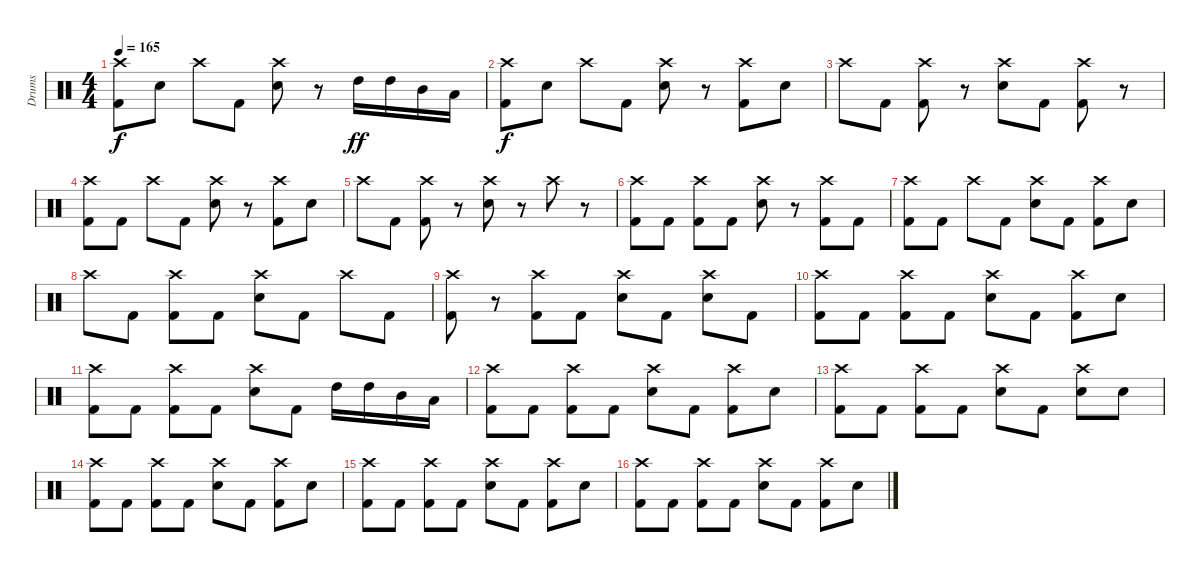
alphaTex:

\track ("Drums" "Drums") {instrument percussion}
\staff {score}
\articulation defaults
\ts (4 4)
\tempo 165
\clef neutral
\ks c
("Crash high (hit)" "Kick (hit) 2").8{dy f} "Electric Snare (hit)".8 "Crash high (hit)".8 "Kick (hit) 2".8 ("Crash high (hit)" "Electric Snare (hit)").8 r.8 "High Tom (hit)".16{dy ff} "High Tom (hit)".16 "Mid Tom (hit)".16 "Low Tom (hit)".16 |
("Crash high (hit)" "Kick (hit) 2").8{dy f} "Electric Snare (hit)".8 "Crash high (hit)".8 "Kick (hit) 2".8 ("Crash high (hit)" "Electric Snare (hit)").8 r.8 ("Crash high (hit)" "Kick (hit) 2").8 "Electric Snare (hit)".8 |
"Crash high (hit)".8 "Kick (hit) 2".8 ("Crash high (hit)" "Kick (hit) 2").8 r.8 ("Crash high (hit)" "Electric Snare (hit)").8 "Kick (hit) 2".8 ("Crash high (hit)" "Kick (hit) 2").8 r.8 |
("Crash high (hit)" "Kick (hit) 2").8 "Kick (hit) 2".8 "Crash high (hit)".8 "Kick (hit) 2".8 ("Crash high (hit)" "Electric Snare (hit)").8 r.8 ("Crash high (hit)" "Kick (hit) 2").8 "Electric Snare (hit)".8 |
"Crash high (hit)".8 "Kick (hit) 2".8 ("Crash high (hit)" "Kick (hit) 2").8 r.8 ("Crash high (hit)" "Electric Snare (hit)").8 r.8 "Crash high (hit)".8 r.8 |
("Crash high (hit)" "Kick (hit) 2").8 "Kick (hit) 2".8 ("Crash high (hit)" "Kick (hit) 2").8 "Kick (hit) 2".8 ("Crash high (hit)" "Electric Snare (hit)").8 r.8 ("Crash high (hit)" "Kick (hit) 2").8 "Kick (hit) 2".8 |
("Crash high (hit)" "Kick (hit) 2").8 "Kick (hit) 2".8 "Crash high (hit)".8 "Kick (hit) 2".8 ("Crash high (hit)" "Electric Snare (hit)").8 "Kick (hit) 2".8 ("Crash high (hit)" "Kick (hit) 2").8 "Electric Snare (hit)".8 |
"Crash high (hit)".8 "Kick (hit) 2".8 ("Crash high (hit)" "Kick (hit) 2").8 "Kick (hit) 2".8 ("Crash high (hit)" "Electric Snare (hit)").8 "Kick (hit) 2".8 "Crash high (hit)".8 "Kick (hit) 2".8 |
("Crash high (hit)" "Kick (hit) 2").8 r.8 ("Crash high (hit)" "Kick (hit) 2").8 "Kick (hit) 2".8 ("Crash high (hit)" "Electric Snare (hit)").8 "Kick (hit) 2".8 ("Crash high (hit)" "Electric Snare (hit)").8 "Kick (hit) 2".8 |
("Crash high (hit)" "Kick (hit) 2").8 "Kick (hit) 2".8 ("Crash high (hit)" "Kick (hit) 2").8 "Kick (hit) 2".8 ("Crash high (hit)" "Electric Snare (hit)").8 "Kick (hit) 2".8 ("Crash high (hit)" "Kick (hit) 2").8 "Electric Snare (hit)".8 |
("Crash high (hit)" "Kick (hit) 2").8 "Kick (hit) 2".8 ("Crash high (hit)" "Kick (hit) 2").8 "Kick (hit) 2".8 ("Crash high (hit)" "Electric Snare (hit)").8 "Kick (hit) 2".8 "High Tom (hit)".16 "High Tom (hit)".16 "Mid Tom (hit)".16 "Low Tom (hit)".16 |
("Crash high (hit)" "Kick (hit) 2").8 "Kick (hit) 2".8 ("Crash high (hit)" "Kick (hit) 2").8 "Kick (hit) 2".8 ("Crash high (hit)" "Electric Snare (hit)").8 "Kick (hit) 2".8 ("Crash high (hit)" "Kick (hit) 2").8 "Electric Snare (hit)".8 |
("Crash high (hit)" "Kick (hit) 2").8 "Kick (hit) 2".8 ("Crash high (hit)" "Kick (hit) 2").8 "Kick (hit) 2".8 ("Crash high (hit)" "Electric Snare (hit)").8 "Kick (hit) 2".8 ("Crash high (hit)" "Electric Snare (hit)").8 "Electric Snare (hit)".8 |
("Crash high (hit)" "Kick (hit) 2").8 "Kick (hit) 2".8 ("Crash high (hit)" "Kick (hit) 2").8 "Kick (hit) 2".8 ("Crash high (hit)" "Electric Snare (hit)").8 "Kick (hit) 2".8 ("Crash high (hit)" "Kick (hit) 2").8 "Electric Snare (hit)".8 |
("Crash high (hit)" "Kick (hit) 2").8 "Kick (hit) 2".8 ("Crash high (hit)" "Kick (hit) 2").8 "Kick (hit) 2".8 ("Crash high (hit)" "Electric Snare (hit)").8 "Kick (hit) 2".8 ("Crash high (hit)" "Kick (hit) 2").8 "Electric Snare (hit)".8 |
("Crash high (hit)" "Kick (hit) 2").8 "Kick (hit) 2".8 ("Crash high (hit)" "Kick (hit) 2").8 "Kick (hit) 2".8 ("Crash high (hit)" "Electric Snare (hit)").8 "Kick (hit) 2".8 ("Crash high (hit)" "Kick (hit) 2").8 "Electric Snare (hit)".8
